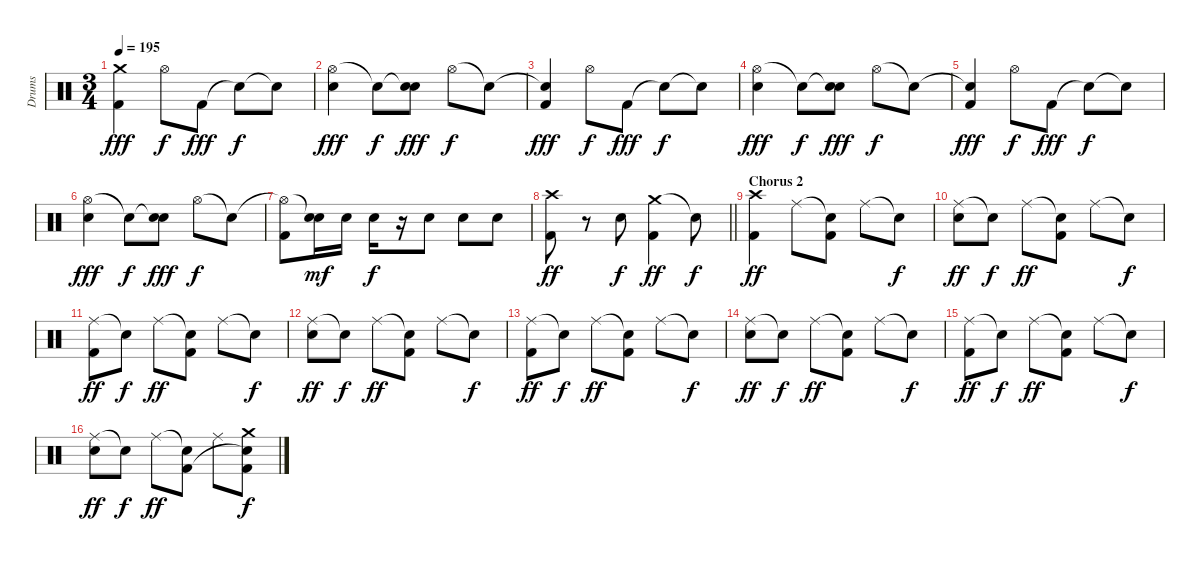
\track ("Drums" "Drums") {instrument percussion}
\staff {score}
\articulation defaults
\ts (3 4)
\tempo 195
\clef neutral
\ks c
("Crash medium (hit)" "Kick (hit) 2").4{dy fff} "Hi-Hat (open)".8{dy f} "Kick (hit) 2".8{dy fff} "Snare (hit)"{t}.8{dy f} "Snare (hit)"{t}.8 |
("Hi-Hat (open)" "Electric Snare (hit)").4{dy fff} "Electric Snare (hit)"{t}.8{dy f} ("Snare (hit)"{t} "Electric Snare (hit)").8{dy fff} "Hi-Hat (open)".8{dy f} "Snare (hit)"{t}.8 |
("Snare (hit)"{t} "Kick (hit) 2").4{dy fff} "Hi-Hat (open)".8{dy f} "Kick (hit) 2".8{dy fff} "Snare (hit)"{t}.8{dy f} "Snare (hit)"{t}.8 |
("Hi-Hat (open)" "Electric Snare (hit)").4{dy fff} "Electric Snare (hit)"{t}.8{dy f} ("Snare (hit)"{t} "Electric Snare (hit)").8{dy fff} "Hi-Hat (open)".8{dy f} "Snare (hit)"{t}.8 |
("Snare (hit)"{t} "Kick (hit) 2").4{dy fff} "Hi-Hat (open)".8{dy f} "Kick (hit) 2".8{dy fff} "Snare (hit)"{t}.8{dy f} "Snare (hit)"{t}.8 |
("Hi-Hat (open)" "Electric Snare (hit)").4{dy fff} "Electric Snare (hit)"{t}.8{dy f} ("Snare (hit)"{t} "Electric Snare (hit)").8{dy fff} "Hi-Hat (open)".8{dy f} "Snare (hit)"{t}.8 |
("Hi-Hat (open)"{t} "Kick (hit) 2").8 ("Snare (hit)"{t} "Electric Snare (hit)").16{dy mf} "Electric Snare (hit)".16 "Electric Snare (hit)".16{dy f} r.16 "Electric Snare (hit)".8 "Electric Snare (hit)".8 "Electric Snare (hit)".8 |
\barLineRight lightlight
("Crash high (hit)" "Kick (hit) 2").8{dy ff} r.8 "Electric Snare (hit)".8{dy f} ("Crash medium (hit)" "Kick (hit) 2").4{dy ff} "Snare (hit)"{t}.8{dy f} |
\section ("" "Chorus 2")
("Crash high (hit)" "Kick (hit) 2").4{dy ff} "Ride (middle)".8 ("Snare (hit)"{t} "Kick (hit) 2").8 "Ride (middle)".8 "Snare (hit)"{t}.8{dy f} |
("Ride (middle)" "Electric Snare (hit)").8{dy ff} "Snare (hit)"{t}.8{dy f} "Ride (middle)".8{dy ff} ("Snare (hit)"{t} "Kick (hit) 2").8 "Ride (middle)".8 "Snare (hit)"{t}.8{dy f} |
("Ride (middle)" "Kick (hit) 2").8{dy ff} "Snare (hit)"{t}.8{dy f} "Ride (middle)".8{dy ff} ("Snare (hit)"{t} "Kick (hit) 2").8 "Ride (middle)".8 "Snare (hit)"{t}.8{dy f} |
("Ride (middle)" "Electric Snare (hit)").8{dy ff} "Snare (hit)"{t}.8{dy f} "Ride (middle)".8{dy ff} ("Snare (hit)"{t} "Kick (hit) 2").8 "Ride (middle)".8 "Snare (hit)"{t}.8{dy f} |
("Ride (middle)" "Kick (hit) 2").8{dy ff} "Snare (hit)"{t}.8{dy f} "Ride (middle)".8{dy ff} ("Snare (hit)"{t} "Kick (hit) 2").8 "Ride (middle)".8 "Snare (hit)"{t}.8{dy f} |
("Ride (middle)" "Electric Snare (hit)").8{dy ff} "Snare (hit)"{t}.8{dy f} "Ride (middle)".8{dy ff} ("Snare (hit)"{t} "Kick (hit) 2").8 "Ride (middle)".8 "Snare (hit)"{t}.8{dy f} |
("Ride (middle)" "Kick (hit) 2").8{dy ff} "Snare (hit)"{t}.8{dy f} "Ride (middle)".8{dy ff} ("Snare (hit)"{t} "Kick (hit) 2").8 "Ride (middle)".8 "Snare (hit)"{t}.8{dy f} |
("Ride (middle)" "Electric Snare (hit)").8{dy ff} "Snare (hit)"{t}.8{dy f} "Ride (middle)".8{dy ff} ("Snare (hit)"{t} "Kick (hit) 2").8 "Ride (middle)".8 ("Crash medium (hit)" "Snare (hit)"{t} "Kick (hit) 2").8{dy f}
